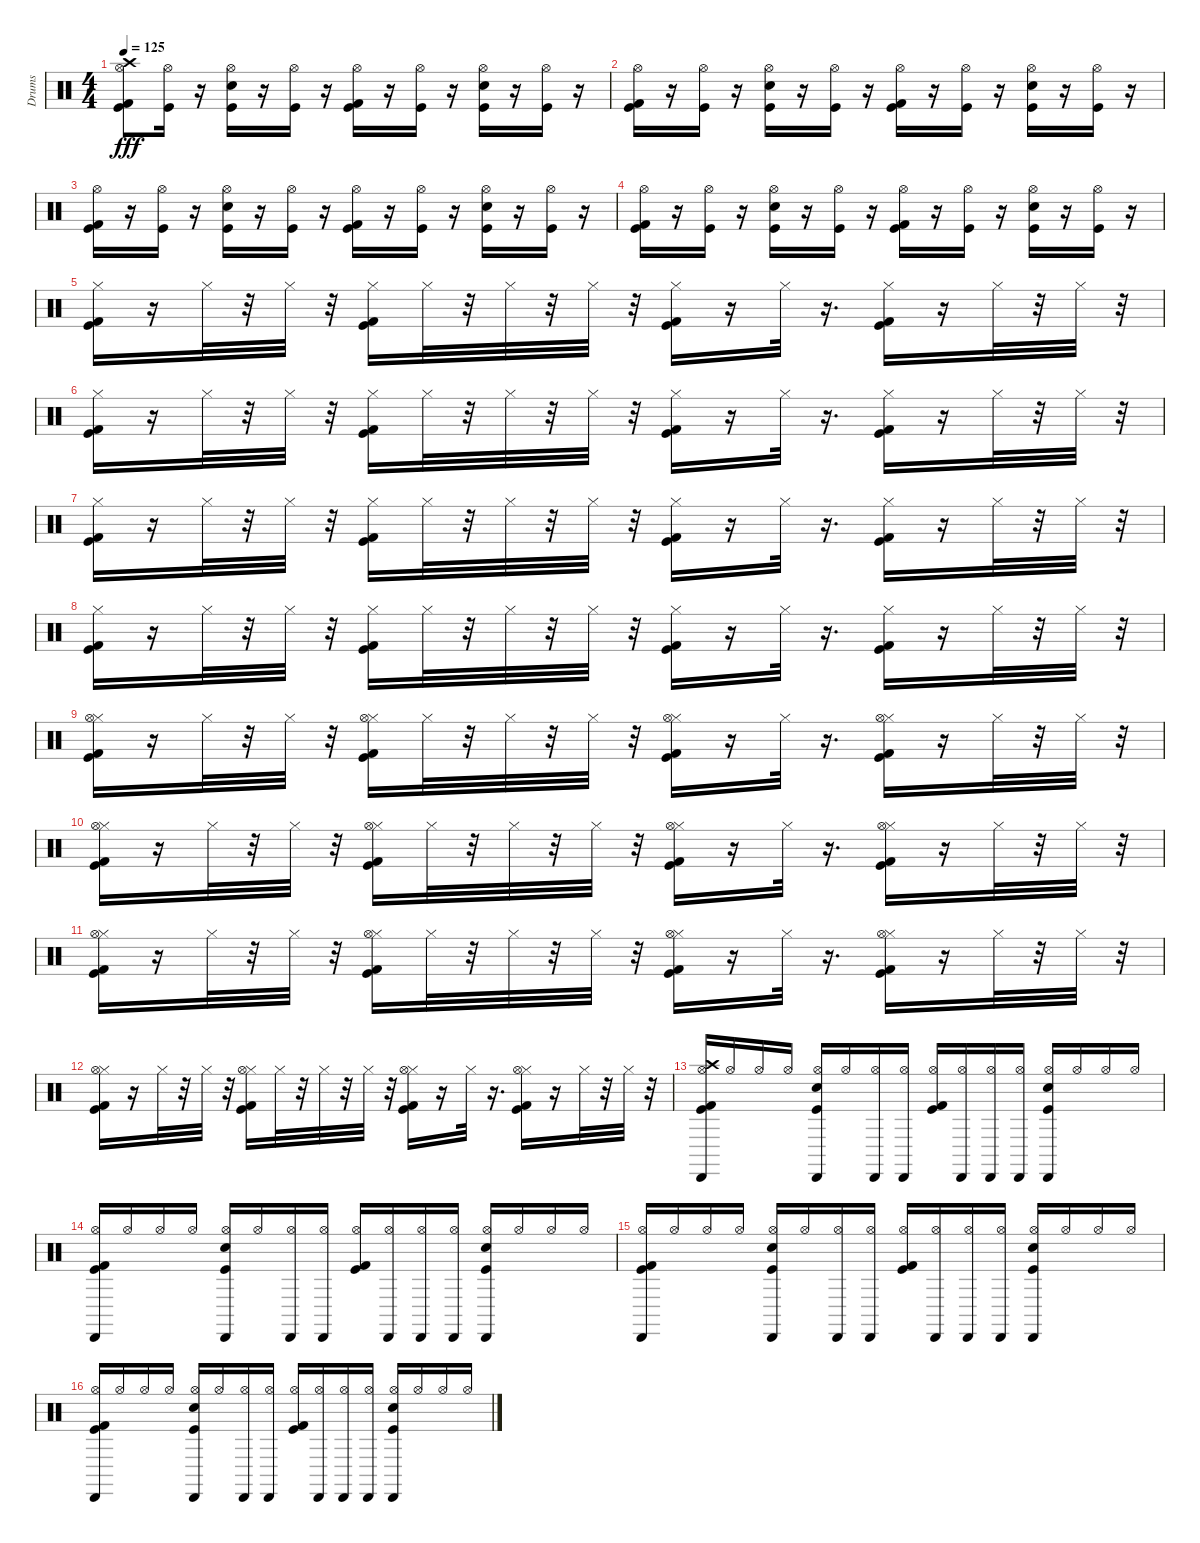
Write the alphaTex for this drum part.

\track ("Drums" "Drums") {instrument percussion}
\staff {score}
\articulation defaults
\ts (4 4)
\tempo 125
\clef neutral
\ks c
("Kick (hit) 2" "Kick (hit)" "Hi-Hat (open)" "Crash high (hit)").8{dy fff} ("Kick (hit)" "Hi-Hat (open)").16 r.16 ("Kick (hit)" "Snare (hit) 2" "Hi-Hat (open)").16 r.16 ("Kick (hit)" "Hi-Hat (open)").16 r.16 ("Kick (hit) 2" "Kick (hit)" "Hi-Hat (open)").16 r.16 ("Kick (hit)" "Hi-Hat (open)").16 r.16 ("Kick (hit)" "Snare (hit) 2" "Hi-Hat (open)").16 r.16 ("Kick (hit)" "Hi-Hat (open)").16 r.16 |
("Kick (hit) 2" "Kick (hit)" "Hi-Hat (open)").16 r.16 ("Kick (hit)" "Hi-Hat (open)").16 r.16 ("Kick (hit)" "Snare (hit) 2" "Hi-Hat (open)").16 r.16 ("Kick (hit)" "Hi-Hat (open)").16 r.16 ("Kick (hit) 2" "Kick (hit)" "Hi-Hat (open)").16 r.16 ("Kick (hit)" "Hi-Hat (open)").16 r.16 ("Kick (hit)" "Snare (hit) 2" "Hi-Hat (open)").16 r.16 ("Kick (hit)" "Hi-Hat (open)").16 r.16 |
("Kick (hit) 2" "Kick (hit)" "Hi-Hat (open)").16 r.16 ("Kick (hit)" "Hi-Hat (open)").16 r.16 ("Kick (hit)" "Snare (hit) 2" "Hi-Hat (open)").16 r.16 ("Kick (hit)" "Hi-Hat (open)").16 r.16 ("Kick (hit) 2" "Kick (hit)" "Hi-Hat (open)").16 r.16 ("Kick (hit)" "Hi-Hat (open)").16 r.16 ("Kick (hit)" "Snare (hit) 2" "Hi-Hat (open)").16 r.16 ("Kick (hit)" "Hi-Hat (open)").16 r.16 |
("Kick (hit) 2" "Kick (hit)" "Hi-Hat (open)").16 r.16 ("Kick (hit)" "Hi-Hat (open)").16 r.16 ("Kick (hit)" "Snare (hit) 2" "Hi-Hat (open)").16 r.16 ("Kick (hit)" "Hi-Hat (open)").16 r.16 ("Kick (hit) 2" "Kick (hit)" "Hi-Hat (open)").16 r.16 ("Kick (hit)" "Hi-Hat (open)").16 r.16 ("Kick (hit)" "Snare (hit) 2" "Hi-Hat (open)").16 r.16 ("Kick (hit)" "Hi-Hat (open)").16 r.16 |
("Kick (hit)" "Kick (hit) 2" "Hi-Hat (closed)").16 r.16 "Hi-Hat (closed)".32 r.32 "Hi-Hat (closed)".32 r.32 ("Kick (hit)" "Kick (hit) 2" "Hi-Hat (closed)").16 "Hi-Hat (closed)".32 r.32 "Hi-Hat (closed)".32 r.32 "Hi-Hat (closed)".32 r.32 ("Kick (hit) 2" "Kick (hit)" "Hi-Hat (closed)").16 r.16 "Hi-Hat (closed)".32 r.16{d} ("Kick (hit)" "Kick (hit) 2" "Hi-Hat (closed)").16 r.16 "Hi-Hat (closed)".32 r.32 "Hi-Hat (closed)".32 r.32 |
("Kick (hit) 2" "Kick (hit)" "Hi-Hat (closed)").16 r.16 "Hi-Hat (closed)".32 r.32 "Hi-Hat (closed)".32 r.32 ("Kick (hit)" "Kick (hit) 2" "Hi-Hat (closed)").16 "Hi-Hat (closed)".32 r.32 "Hi-Hat (closed)".32 r.32 "Hi-Hat (closed)".32 r.32 ("Kick (hit) 2" "Kick (hit)" "Hi-Hat (closed)").16 r.16 "Hi-Hat (closed)".32 r.16{d} ("Kick (hit)" "Kick (hit) 2" "Hi-Hat (closed)").16 r.16 "Hi-Hat (closed)".32 r.32 "Hi-Hat (closed)".32 r.32 |
("Kick (hit) 2" "Kick (hit)" "Hi-Hat (closed)").16 r.16 "Hi-Hat (closed)".32 r.32 "Hi-Hat (closed)".32 r.32 ("Kick (hit)" "Kick (hit) 2" "Hi-Hat (closed)").16 "Hi-Hat (closed)".32 r.32 "Hi-Hat (closed)".32 r.32 "Hi-Hat (closed)".32 r.32 ("Kick (hit) 2" "Kick (hit)" "Hi-Hat (closed)").16 r.16 "Hi-Hat (closed)".32 r.16{d} ("Kick (hit)" "Kick (hit) 2" "Hi-Hat (closed)").16 r.16 "Hi-Hat (closed)".32 r.32 "Hi-Hat (closed)".32 r.32 |
("Kick (hit) 2" "Kick (hit)" "Hi-Hat (closed)").16 r.16 "Hi-Hat (closed)".32 r.32 "Hi-Hat (closed)".32 r.32 ("Kick (hit)" "Kick (hit) 2" "Hi-Hat (closed)").16 "Hi-Hat (closed)".32 r.32 "Hi-Hat (closed)".32 r.32 "Hi-Hat (closed)".32 r.32 ("Kick (hit) 2" "Kick (hit)" "Hi-Hat (closed)").16 r.16 "Hi-Hat (closed)".32 r.16{d} ("Kick (hit)" "Kick (hit) 2" "Hi-Hat (closed)").16 r.16 "Hi-Hat (closed)".32 r.32 "Hi-Hat (closed)".32 r.32 |
("Kick (hit)" "Kick (hit) 2" "Hi-Hat (closed)" "Hi-Hat (open)").16 r.16 "Hi-Hat (closed)".32 r.32 "Hi-Hat (closed)".32 r.32 ("Kick (hit)" "Kick (hit) 2" "Hi-Hat (closed)" "Hi-Hat (open)").16 "Hi-Hat (closed)".32 r.32 "Hi-Hat (closed)".32 r.32 "Hi-Hat (closed)".32 r.32 ("Kick (hit) 2" "Kick (hit)" "Hi-Hat (closed)" "Hi-Hat (open)").16 r.16 "Hi-Hat (closed)".32 r.16{d} ("Kick (hit)" "Kick (hit) 2" "Hi-Hat (closed)" "Hi-Hat (open)").16 r.16 "Hi-Hat (closed)".32 r.32 "Hi-Hat (closed)".32 r.32 |
("Kick (hit) 2" "Kick (hit)" "Hi-Hat (closed)" "Hi-Hat (open)").16 r.16 "Hi-Hat (closed)".32 r.32 "Hi-Hat (closed)".32 r.32 ("Kick (hit)" "Kick (hit) 2" "Hi-Hat (closed)" "Hi-Hat (open)").16 "Hi-Hat (closed)".32 r.32 "Hi-Hat (closed)".32 r.32 "Hi-Hat (closed)".32 r.32 ("Kick (hit) 2" "Kick (hit)" "Hi-Hat (closed)" "Hi-Hat (open)").16 r.16 "Hi-Hat (closed)".32 r.16{d} ("Kick (hit)" "Kick (hit) 2" "Hi-Hat (closed)" "Hi-Hat (open)").16 r.16 "Hi-Hat (closed)".32 r.32 "Hi-Hat (closed)".32 r.32 |
("Kick (hit) 2" "Kick (hit)" "Hi-Hat (closed)" "Hi-Hat (open)").16 r.16 "Hi-Hat (closed)".32 r.32 "Hi-Hat (closed)".32 r.32 ("Kick (hit)" "Kick (hit) 2" "Hi-Hat (closed)" "Hi-Hat (open)").16 "Hi-Hat (closed)".32 r.32 "Hi-Hat (closed)".32 r.32 "Hi-Hat (closed)".32 r.32 ("Kick (hit) 2" "Kick (hit)" "Hi-Hat (closed)" "Hi-Hat (open)").16 r.16 "Hi-Hat (closed)".32 r.16{d} ("Kick (hit)" "Kick (hit) 2" "Hi-Hat (closed)" "Hi-Hat (open)").16 r.16 "Hi-Hat (closed)".32 r.32 "Hi-Hat (closed)".32 r.32 |
("Kick (hit) 2" "Kick (hit)" "Hi-Hat (closed)" "Hi-Hat (open)").16 r.16 "Hi-Hat (closed)".32 r.32 "Hi-Hat (closed)".32 r.32 ("Kick (hit)" "Kick (hit) 2" "Hi-Hat (closed)" "Hi-Hat (open)").16 "Hi-Hat (closed)".32 r.32 "Hi-Hat (closed)".32 r.32 "Hi-Hat (closed)".32 r.32 ("Kick (hit) 2" "Kick (hit)" "Hi-Hat (closed)" "Hi-Hat (open)").16 r.16 "Hi-Hat (closed)".32 r.16{d} ("Kick (hit)" "Kick (hit) 2" "Hi-Hat (closed)" "Hi-Hat (open)").16 r.16 "Hi-Hat (closed)".32 r.32 "Hi-Hat (closed)".32 r.32 |
("Kick (hit) 2" "Kick (hit)" "Cabasa (hit)" "Crash high (hit)" "Hi-Hat (open)").16 "Hi-Hat (open)".16 "Hi-Hat (open)".16 "Hi-Hat (open)".16 ("Kick (hit)" "Cabasa (hit)" "Snare (hit) 2" "Hi-Hat (open)").16 "Hi-Hat (open)".16 ("Cabasa (hit)" "Hi-Hat (open)").16 ("Cabasa (hit)" "Hi-Hat (open)").16 ("Kick (hit) 2" "Kick (hit)" "Hi-Hat (open)").16 ("Cabasa (hit)" "Hi-Hat (open)").16 ("Cabasa (hit)" "Hi-Hat (open)").16 ("Cabasa (hit)" "Hi-Hat (open)").16 ("Kick (hit)" "Cabasa (hit)" "Snare (hit) 2" "Hi-Hat (open)").16 "Hi-Hat (open)".16 "Hi-Hat (open)".16 "Hi-Hat (open)".16 |
("Kick (hit) 2" "Kick (hit)" "Cabasa (hit)" "Hi-Hat (open)").16 "Hi-Hat (open)".16 "Hi-Hat (open)".16 "Hi-Hat (open)".16 ("Kick (hit)" "Cabasa (hit)" "Snare (hit) 2" "Hi-Hat (open)").16 "Hi-Hat (open)".16 ("Cabasa (hit)" "Hi-Hat (open)").16 ("Cabasa (hit)" "Hi-Hat (open)").16 ("Kick (hit) 2" "Kick (hit)" "Hi-Hat (open)").16 ("Cabasa (hit)" "Hi-Hat (open)").16 ("Cabasa (hit)" "Hi-Hat (open)").16 ("Cabasa (hit)" "Hi-Hat (open)").16 ("Kick (hit)" "Cabasa (hit)" "Snare (hit) 2" "Hi-Hat (open)").16 "Hi-Hat (open)".16 "Hi-Hat (open)".16 "Hi-Hat (open)".16 |
("Kick (hit) 2" "Kick (hit)" "Cabasa (hit)" "Hi-Hat (open)").16 "Hi-Hat (open)".16 "Hi-Hat (open)".16 "Hi-Hat (open)".16 ("Kick (hit)" "Cabasa (hit)" "Snare (hit) 2" "Hi-Hat (open)").16 "Hi-Hat (open)".16 ("Cabasa (hit)" "Hi-Hat (open)").16 ("Cabasa (hit)" "Hi-Hat (open)").16 ("Kick (hit) 2" "Kick (hit)" "Hi-Hat (open)").16 ("Cabasa (hit)" "Hi-Hat (open)").16 ("Cabasa (hit)" "Hi-Hat (open)").16 ("Cabasa (hit)" "Hi-Hat (open)").16 ("Kick (hit)" "Cabasa (hit)" "Snare (hit) 2" "Hi-Hat (open)").16 "Hi-Hat (open)".16 "Hi-Hat (open)".16 "Hi-Hat (open)".16 |
("Kick (hit) 2" "Kick (hit)" "Cabasa (hit)" "Hi-Hat (open)").16 "Hi-Hat (open)".16 "Hi-Hat (open)".16 "Hi-Hat (open)".16 ("Kick (hit)" "Cabasa (hit)" "Snare (hit) 2" "Hi-Hat (open)").16 "Hi-Hat (open)".16 ("Cabasa (hit)" "Hi-Hat (open)").16 ("Cabasa (hit)" "Hi-Hat (open)").16 ("Kick (hit) 2" "Kick (hit)" "Hi-Hat (open)").16 ("Cabasa (hit)" "Hi-Hat (open)").16 ("Cabasa (hit)" "Hi-Hat (open)").16 ("Cabasa (hit)" "Hi-Hat (open)").16 ("Kick (hit)" "Cabasa (hit)" "Snare (hit) 2" "Hi-Hat (open)").16 "Hi-Hat (open)".16 "Hi-Hat (open)".16 "Hi-Hat (open)".16
